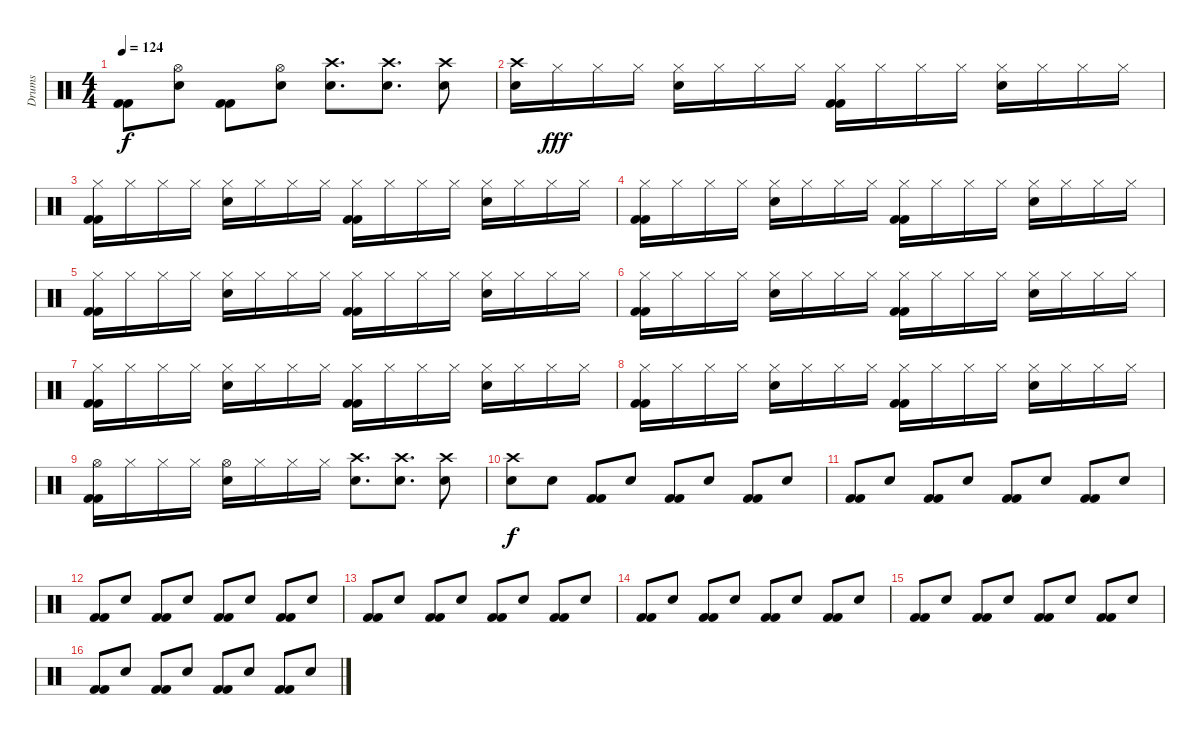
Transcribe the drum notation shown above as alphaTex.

\track ("Drums" "Drums") {instrument percussion}
\staff {score}
\articulation defaults
\ts (4 4)
\tempo 124
\clef neutral
\ks c
("Kick (hit) 2" "Kick (hit) 2").8{dy f} ("Hand Clap (hit)" "Hi-Hat (open)").8 ("Kick (hit) 2" "Kick (hit) 2").8 ("Hand Clap (hit)" "Hi-Hat (open)").8 ("Snare (hit) 2" "Crash high (hit)").8{d} ("Snare (hit) 2" "Crash high (hit)").8{d} ("Snare (hit) 2" "Crash high (hit)").8 |
("Snare (hit) 2" "Crash high (hit)").16 "Hi-Hat (closed)".16{dy fff} "Hi-Hat (closed)".16 "Hi-Hat (closed)".16 ("Hand Clap (hit)" "Hi-Hat (closed)").16 "Hi-Hat (closed)".16 "Hi-Hat (closed)".16 "Hi-Hat (closed)".16 ("Kick (hit) 2" "Kick (hit) 2" "Hi-Hat (closed)").16 "Hi-Hat (closed)".16 "Hi-Hat (closed)".16 "Hi-Hat (closed)".16 ("Hand Clap (hit)" "Hi-Hat (closed)").16 "Hi-Hat (closed)".16 "Hi-Hat (closed)".16 "Hi-Hat (closed)".16 |
("Kick (hit) 2" "Kick (hit) 2" "Hi-Hat (closed)").16 "Hi-Hat (closed)".16 "Hi-Hat (closed)".16 "Hi-Hat (closed)".16 ("Hand Clap (hit)" "Hi-Hat (closed)").16 "Hi-Hat (closed)".16 "Hi-Hat (closed)".16 "Hi-Hat (closed)".16 ("Kick (hit) 2" "Kick (hit) 2" "Hi-Hat (closed)").16 "Hi-Hat (closed)".16 "Hi-Hat (closed)".16 "Hi-Hat (closed)".16 ("Hand Clap (hit)" "Hi-Hat (closed)").16 "Hi-Hat (closed)".16 "Hi-Hat (closed)".16 "Hi-Hat (closed)".16 |
("Kick (hit) 2" "Kick (hit) 2" "Hi-Hat (closed)").16 "Hi-Hat (closed)".16 "Hi-Hat (closed)".16 "Hi-Hat (closed)".16 ("Hand Clap (hit)" "Hi-Hat (closed)").16 "Hi-Hat (closed)".16 "Hi-Hat (closed)".16 "Hi-Hat (closed)".16 ("Kick (hit) 2" "Kick (hit) 2" "Hi-Hat (closed)").16 "Hi-Hat (closed)".16 "Hi-Hat (closed)".16 "Hi-Hat (closed)".16 ("Hand Clap (hit)" "Hi-Hat (closed)").16 "Hi-Hat (closed)".16 "Hi-Hat (closed)".16 "Hi-Hat (closed)".16 |
("Kick (hit) 2" "Kick (hit) 2" "Hi-Hat (closed)").16 "Hi-Hat (closed)".16 "Hi-Hat (closed)".16 "Hi-Hat (closed)".16 ("Hand Clap (hit)" "Hi-Hat (closed)").16 "Hi-Hat (closed)".16 "Hi-Hat (closed)".16 "Hi-Hat (closed)".16 ("Kick (hit) 2" "Kick (hit) 2" "Hi-Hat (closed)").16 "Hi-Hat (closed)".16 "Hi-Hat (closed)".16 "Hi-Hat (closed)".16 ("Hand Clap (hit)" "Hi-Hat (closed)").16 "Hi-Hat (closed)".16 "Hi-Hat (closed)".16 "Hi-Hat (closed)".16 |
("Kick (hit) 2" "Kick (hit) 2" "Hi-Hat (closed)").16 "Hi-Hat (closed)".16 "Hi-Hat (closed)".16 "Hi-Hat (closed)".16 ("Hand Clap (hit)" "Hi-Hat (closed)").16 "Hi-Hat (closed)".16 "Hi-Hat (closed)".16 "Hi-Hat (closed)".16 ("Kick (hit) 2" "Kick (hit) 2" "Hi-Hat (closed)").16 "Hi-Hat (closed)".16 "Hi-Hat (closed)".16 "Hi-Hat (closed)".16 ("Hand Clap (hit)" "Hi-Hat (closed)").16 "Hi-Hat (closed)".16 "Hi-Hat (closed)".16 "Hi-Hat (closed)".16 |
("Kick (hit) 2" "Kick (hit) 2" "Hi-Hat (closed)").16 "Hi-Hat (closed)".16 "Hi-Hat (closed)".16 "Hi-Hat (closed)".16 ("Hand Clap (hit)" "Hi-Hat (closed)").16 "Hi-Hat (closed)".16 "Hi-Hat (closed)".16 "Hi-Hat (closed)".16 ("Kick (hit) 2" "Kick (hit) 2" "Hi-Hat (closed)").16 "Hi-Hat (closed)".16 "Hi-Hat (closed)".16 "Hi-Hat (closed)".16 ("Hand Clap (hit)" "Hi-Hat (closed)").16 "Hi-Hat (closed)".16 "Hi-Hat (closed)".16 "Hi-Hat (closed)".16 |
("Kick (hit) 2" "Kick (hit) 2" "Hi-Hat (closed)").16 "Hi-Hat (closed)".16 "Hi-Hat (closed)".16 "Hi-Hat (closed)".16 ("Hand Clap (hit)" "Hi-Hat (closed)").16 "Hi-Hat (closed)".16 "Hi-Hat (closed)".16 "Hi-Hat (closed)".16 ("Kick (hit) 2" "Kick (hit) 2" "Hi-Hat (closed)").16 "Hi-Hat (closed)".16 "Hi-Hat (closed)".16 "Hi-Hat (closed)".16 ("Hand Clap (hit)" "Hi-Hat (closed)").16 "Hi-Hat (closed)".16 "Hi-Hat (closed)".16 "Hi-Hat (closed)".16 |
("Kick (hit) 2" "Kick (hit) 2" "Hi-Hat (open)").16 "Hi-Hat (closed)".16 "Hi-Hat (closed)".16 "Hi-Hat (closed)".16 ("Hand Clap (hit)" "Hi-Hat (open)").16 "Hi-Hat (closed)".16 "Hi-Hat (closed)".16 "Hi-Hat (closed)".16 ("Snare (hit) 2" "Crash high (hit)").8{d} ("Snare (hit) 2" "Crash high (hit)").8{d} ("Snare (hit) 2" "Crash high (hit)").8 |
("Snare (hit) 2" "Crash high (hit)").8{dy f} "Hand Clap (hit)".8 ("Kick (hit) 2" "Kick (hit) 2").8 "Hand Clap (hit)".8 ("Kick (hit) 2" "Kick (hit) 2").8 "Hand Clap (hit)".8 ("Kick (hit) 2" "Kick (hit) 2").8 "Hand Clap (hit)".8 |
("Kick (hit) 2" "Kick (hit) 2").8 "Hand Clap (hit)".8 ("Kick (hit) 2" "Kick (hit) 2").8 "Hand Clap (hit)".8 ("Kick (hit) 2" "Kick (hit) 2").8 "Hand Clap (hit)".8 ("Kick (hit) 2" "Kick (hit) 2").8 "Hand Clap (hit)".8 |
("Kick (hit) 2" "Kick (hit) 2").8 "Hand Clap (hit)".8 ("Kick (hit) 2" "Kick (hit) 2").8 "Hand Clap (hit)".8 ("Kick (hit) 2" "Kick (hit) 2").8 "Hand Clap (hit)".8 ("Kick (hit) 2" "Kick (hit) 2").8 "Hand Clap (hit)".8 |
("Kick (hit) 2" "Kick (hit) 2").8 "Hand Clap (hit)".8 ("Kick (hit) 2" "Kick (hit) 2").8 "Hand Clap (hit)".8 ("Kick (hit) 2" "Kick (hit) 2").8 "Hand Clap (hit)".8 ("Kick (hit) 2" "Kick (hit) 2").8 "Hand Clap (hit)".8 |
("Kick (hit) 2" "Kick (hit) 2").8 "Hand Clap (hit)".8 ("Kick (hit) 2" "Kick (hit) 2").8 "Hand Clap (hit)".8 ("Kick (hit) 2" "Kick (hit) 2").8 "Hand Clap (hit)".8 ("Kick (hit) 2" "Kick (hit) 2").8 "Hand Clap (hit)".8 |
("Kick (hit) 2" "Kick (hit) 2").8 "Hand Clap (hit)".8 ("Kick (hit) 2" "Kick (hit) 2").8 "Hand Clap (hit)".8 ("Kick (hit) 2" "Kick (hit) 2").8 "Hand Clap (hit)".8 ("Kick (hit) 2" "Kick (hit) 2").8 "Hand Clap (hit)".8 |
("Kick (hit) 2" "Kick (hit) 2").8 "Hand Clap (hit)".8 ("Kick (hit) 2" "Kick (hit) 2").8 "Hand Clap (hit)".8 ("Kick (hit) 2" "Kick (hit) 2").8 "Hand Clap (hit)".8 ("Kick (hit) 2" "Kick (hit) 2").8 "Hand Clap (hit)".8
